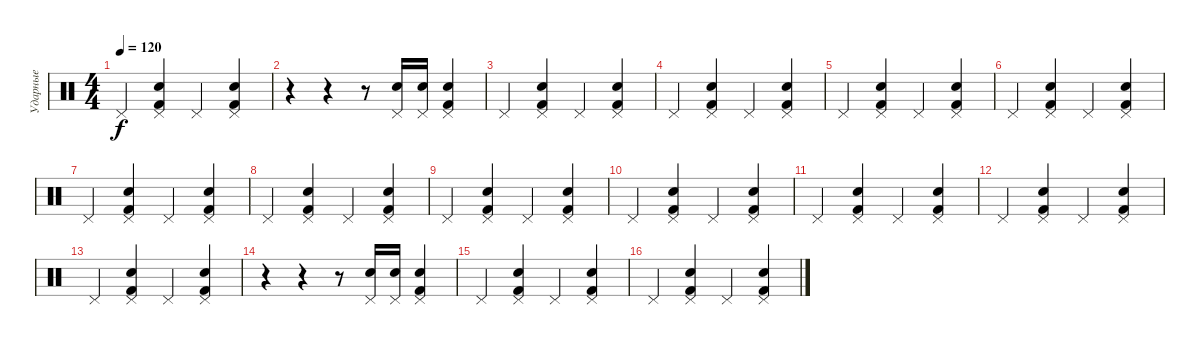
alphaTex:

\track ("Ударные" "Ударные") {instrument percussion}
\staff {score}
\articulation defaults
\ts (4 4)
\tempo 120
\clef neutral
\ks c "Pedal Hi-Hat (hit)".4{dy f}
("Electric Snare (hit)" "Pedal Hi-Hat (hit)" "Kick (hit) 2").4 "Pedal Hi-Hat (hit)".4 ("Electric Snare (hit)" "Pedal Hi-Hat (hit)" "Kick (hit) 2").4 |
r.4 r.4 r.8 ("Electric Snare (hit)" "Pedal Hi-Hat (hit)").16 ("Electric Snare (hit)" "Pedal Hi-Hat (hit)").16 ("Electric Snare (hit)" "Pedal Hi-Hat (hit)" "Kick (hit) 2").4 |
"Pedal Hi-Hat (hit)".4 ("Electric Snare (hit)" "Pedal Hi-Hat (hit)" "Kick (hit) 2").4 "Pedal Hi-Hat (hit)".4 ("Electric Snare (hit)" "Pedal Hi-Hat (hit)" "Kick (hit) 2").4 |
"Pedal Hi-Hat (hit)".4 ("Electric Snare (hit)" "Pedal Hi-Hat (hit)" "Kick (hit) 2").4 "Pedal Hi-Hat (hit)".4 ("Electric Snare (hit)" "Pedal Hi-Hat (hit)" "Kick (hit) 2").4 |
"Pedal Hi-Hat (hit)".4 ("Electric Snare (hit)" "Pedal Hi-Hat (hit)" "Kick (hit) 2").4 "Pedal Hi-Hat (hit)".4 ("Electric Snare (hit)" "Pedal Hi-Hat (hit)" "Kick (hit) 2").4 |
"Pedal Hi-Hat (hit)".4 ("Electric Snare (hit)" "Pedal Hi-Hat (hit)" "Kick (hit) 2").4 "Pedal Hi-Hat (hit)".4 ("Electric Snare (hit)" "Pedal Hi-Hat (hit)" "Kick (hit) 2").4 |
"Pedal Hi-Hat (hit)".4 ("Electric Snare (hit)" "Pedal Hi-Hat (hit)" "Kick (hit) 2").4 "Pedal Hi-Hat (hit)".4 ("Electric Snare (hit)" "Pedal Hi-Hat (hit)" "Kick (hit) 2").4 |
"Pedal Hi-Hat (hit)".4 ("Electric Snare (hit)" "Pedal Hi-Hat (hit)" "Kick (hit) 2").4 "Pedal Hi-Hat (hit)".4 ("Electric Snare (hit)" "Pedal Hi-Hat (hit)" "Kick (hit) 2").4 |
"Pedal Hi-Hat (hit)".4 ("Electric Snare (hit)" "Pedal Hi-Hat (hit)" "Kick (hit) 2").4 "Pedal Hi-Hat (hit)".4 ("Electric Snare (hit)" "Pedal Hi-Hat (hit)" "Kick (hit) 2").4 |
"Pedal Hi-Hat (hit)".4 ("Electric Snare (hit)" "Pedal Hi-Hat (hit)" "Kick (hit) 2").4 "Pedal Hi-Hat (hit)".4 ("Electric Snare (hit)" "Pedal Hi-Hat (hit)" "Kick (hit) 2").4 |
"Pedal Hi-Hat (hit)".4 ("Electric Snare (hit)" "Pedal Hi-Hat (hit)" "Kick (hit) 2").4 "Pedal Hi-Hat (hit)".4 ("Electric Snare (hit)" "Pedal Hi-Hat (hit)" "Kick (hit) 2").4 |
"Pedal Hi-Hat (hit)".4 ("Electric Snare (hit)" "Pedal Hi-Hat (hit)" "Kick (hit) 2").4 "Pedal Hi-Hat (hit)".4 ("Electric Snare (hit)" "Pedal Hi-Hat (hit)" "Kick (hit) 2").4 |
"Pedal Hi-Hat (hit)".4 ("Electric Snare (hit)" "Pedal Hi-Hat (hit)" "Kick (hit) 2").4 "Pedal Hi-Hat (hit)".4 ("Electric Snare (hit)" "Pedal Hi-Hat (hit)" "Kick (hit) 2").4 |
r.4 r.4 r.8 ("Electric Snare (hit)" "Pedal Hi-Hat (hit)").16 ("Electric Snare (hit)" "Pedal Hi-Hat (hit)").16 ("Electric Snare (hit)" "Pedal Hi-Hat (hit)" "Kick (hit) 2").4 |
"Pedal Hi-Hat (hit)".4 ("Electric Snare (hit)" "Pedal Hi-Hat (hit)" "Kick (hit) 2").4 "Pedal Hi-Hat (hit)".4 ("Electric Snare (hit)" "Pedal Hi-Hat (hit)" "Kick (hit) 2").4 |
"Pedal Hi-Hat (hit)".4 ("Electric Snare (hit)" "Pedal Hi-Hat (hit)" "Kick (hit) 2").4 "Pedal Hi-Hat (hit)".4 ("Electric Snare (hit)" "Pedal Hi-Hat (hit)" "Kick (hit) 2").4
